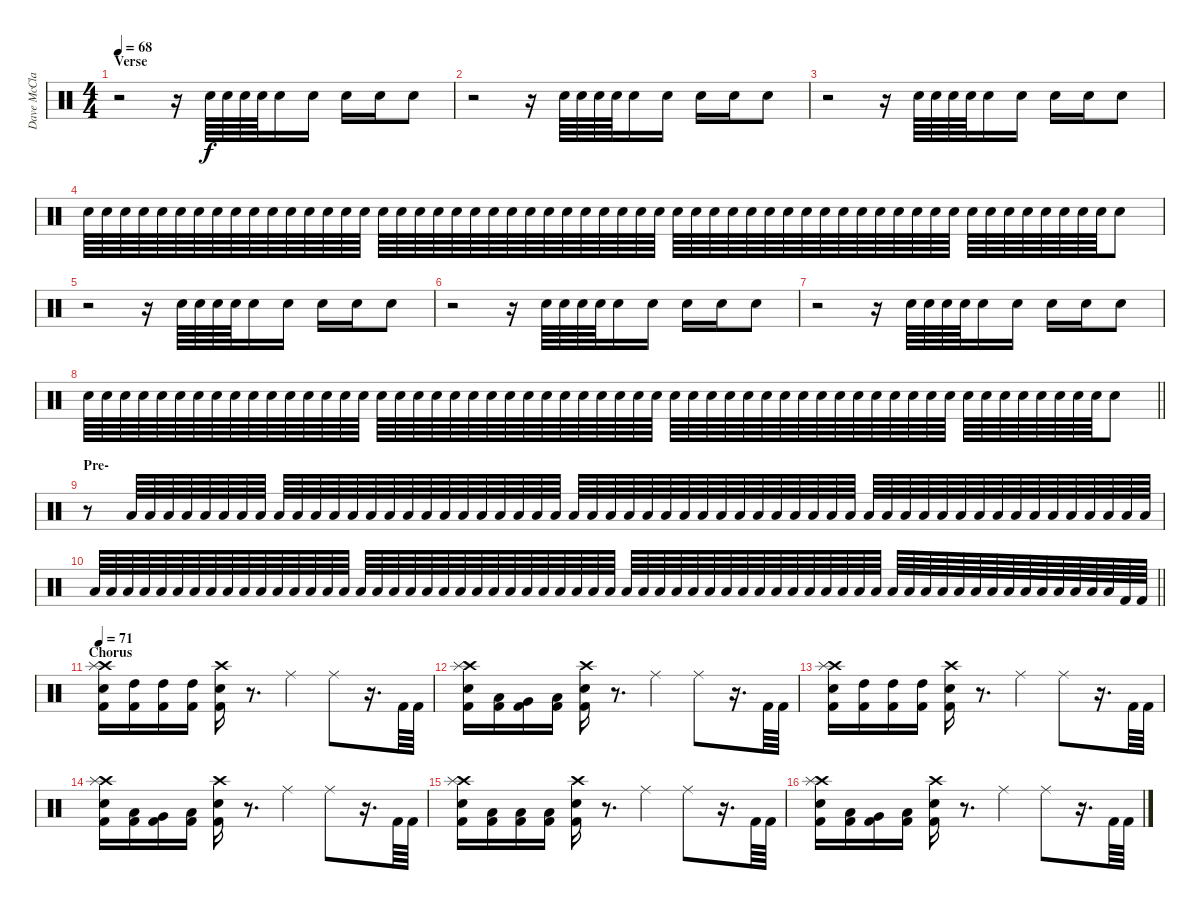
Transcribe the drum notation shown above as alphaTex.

\track ("Dave McClain - Drums" "Dave McCla") {instrument percussion}
\staff {score}
\articulation defaults
\ts (4 4)
\section ("" "Verse")
\tempo 68
\clef neutral
\ks c
r.2{dy f} r.16 "Electric Snare (hit)".64 "Electric Snare (hit)".64 "Electric Snare (hit)".64 "Electric Snare (hit)".64 "Electric Snare (hit)".16 "Electric Snare (hit)".16 "Electric Snare (hit)".16 "Electric Snare (hit)".16 "Electric Snare (hit)".8 |
r.2 r.16 "Electric Snare (hit)".64 "Electric Snare (hit)".64 "Electric Snare (hit)".64 "Electric Snare (hit)".64 "Electric Snare (hit)".16 "Electric Snare (hit)".16 "Electric Snare (hit)".16 "Electric Snare (hit)".16 "Electric Snare (hit)".8 |
r.2 r.16 "Electric Snare (hit)".64 "Electric Snare (hit)".64 "Electric Snare (hit)".64 "Electric Snare (hit)".64 "Electric Snare (hit)".16 "Electric Snare (hit)".16 "Electric Snare (hit)".16 "Electric Snare (hit)".16 "Electric Snare (hit)".8 |
"Electric Snare (hit)".64 "Electric Snare (hit)".64 "Electric Snare (hit)".64 "Electric Snare (hit)".64 "Electric Snare (hit)".64 "Electric Snare (hit)".64 "Electric Snare (hit)".64 "Electric Snare (hit)".64 "Electric Snare (hit)".64 "Electric Snare (hit)".64 "Electric Snare (hit)".64 "Electric Snare (hit)".64 "Electric Snare (hit)".64 "Electric Snare (hit)".64 "Electric Snare (hit)".64 "Electric Snare (hit)".64 "Electric Snare (hit)".64 "Electric Snare (hit)".64 "Electric Snare (hit)".64 "Electric Snare (hit)".64 "Electric Snare (hit)".64 "Electric Snare (hit)".64 "Electric Snare (hit)".64 "Electric Snare (hit)".64 "Electric Snare (hit)".64 "Electric Snare (hit)".64 "Electric Snare (hit)".64 "Electric Snare (hit)".64 "Electric Snare (hit)".64 "Electric Snare (hit)".64 "Electric Snare (hit)".64 "Electric Snare (hit)".64 "Electric Snare (hit)".64 "Electric Snare (hit)".64 "Electric Snare (hit)".64 "Electric Snare (hit)".64 "Electric Snare (hit)".64 "Electric Snare (hit)".64 "Electric Snare (hit)".64 "Electric Snare (hit)".64 "Electric Snare (hit)".64 "Electric Snare (hit)".64 "Electric Snare (hit)".64 "Electric Snare (hit)".64 "Electric Snare (hit)".64 "Electric Snare (hit)".64 "Electric Snare (hit)".64 "Electric Snare (hit)".64 "Electric Snare (hit)".64 "Electric Snare (hit)".64 "Electric Snare (hit)".64 "Electric Snare (hit)".64 "Electric Snare (hit)".64 "Electric Snare (hit)".64 "Electric Snare (hit)".64 "Electric Snare (hit)".64 "Electric Snare (hit)".8 |
r.2 r.16 "Electric Snare (hit)".64 "Electric Snare (hit)".64 "Electric Snare (hit)".64 "Electric Snare (hit)".64 "Electric Snare (hit)".16 "Electric Snare (hit)".16 "Electric Snare (hit)".16 "Electric Snare (hit)".16 "Electric Snare (hit)".8 |
r.2 r.16 "Electric Snare (hit)".64 "Electric Snare (hit)".64 "Electric Snare (hit)".64 "Electric Snare (hit)".64 "Electric Snare (hit)".16 "Electric Snare (hit)".16 "Electric Snare (hit)".16 "Electric Snare (hit)".16 "Electric Snare (hit)".8 |
r.2 r.16 "Electric Snare (hit)".64 "Electric Snare (hit)".64 "Electric Snare (hit)".64 "Electric Snare (hit)".64 "Electric Snare (hit)".16 "Electric Snare (hit)".16 "Electric Snare (hit)".16 "Electric Snare (hit)".16 "Electric Snare (hit)".8 |
\barLineRight lightlight "Electric Snare (hit)".64 "Electric Snare (hit)".64 "Electric Snare (hit)".64 "Electric Snare (hit)".64 "Electric Snare (hit)".64 "Electric Snare (hit)".64 "Electric Snare (hit)".64 "Electric Snare (hit)".64 "Electric Snare (hit)".64 "Electric Snare (hit)".64 "Electric Snare (hit)".64 "Electric Snare (hit)".64 "Electric Snare (hit)".64 "Electric Snare (hit)".64 "Electric Snare (hit)".64 "Electric Snare (hit)".64 "Electric Snare (hit)".64 "Electric Snare (hit)".64 "Electric Snare (hit)".64 "Electric Snare (hit)".64 "Electric Snare (hit)".64 "Electric Snare (hit)".64 "Electric Snare (hit)".64 "Electric Snare (hit)".64 "Electric Snare (hit)".64 "Electric Snare (hit)".64 "Electric Snare (hit)".64 "Electric Snare (hit)".64 "Electric Snare (hit)".64 "Electric Snare (hit)".64 "Electric Snare (hit)".64 "Electric Snare (hit)".64 "Electric Snare (hit)".64 "Electric Snare (hit)".64 "Electric Snare (hit)".64 "Electric Snare (hit)".64 "Electric Snare (hit)".64 "Electric Snare (hit)".64 "Electric Snare (hit)".64 "Electric Snare (hit)".64 "Electric Snare (hit)".64 "Electric Snare (hit)".64 "Electric Snare (hit)".64 "Electric Snare (hit)".64 "Electric Snare (hit)".64 "Electric Snare (hit)".64 "Electric Snare (hit)".64 "Electric Snare (hit)".64 "Electric Snare (hit)".64 "Electric Snare (hit)".64 "Electric Snare (hit)".64 "Electric Snare (hit)".64 "Electric Snare (hit)".64 "Electric Snare (hit)".64 "Electric Snare (hit)".64 "Electric Snare (hit)".64 "Electric Snare (hit)".8
|
\section ("" "Pre-")
r.8{volume 0} "Low Floor Tom (hit)".64{volume 16} "Low Floor Tom (hit)".64 "Low Floor Tom (hit)".64 "Low Floor Tom (hit)".64 "Low Floor Tom (hit)".64 "Low Floor Tom (hit)".64 "Low Floor Tom (hit)".64 "Low Floor Tom (hit)".64 "Low Floor Tom (hit)".64 "Low Floor Tom (hit)".64 "Low Floor Tom (hit)".64 "Low Floor Tom (hit)".64 "Low Floor Tom (hit)".64 "Low Floor Tom (hit)".64 "Low Floor Tom (hit)".64 "Low Floor Tom (hit)".64 "Low Floor Tom (hit)".64 "Low Floor Tom (hit)".64 "Low Floor Tom (hit)".64 "Low Floor Tom (hit)".64 "Low Floor Tom (hit)".64 "Low Floor Tom (hit)".64 "Low Floor Tom (hit)".64 "Low Floor Tom (hit)".64 "Low Floor Tom (hit)".64 "Low Floor Tom (hit)".64 "Low Floor Tom (hit)".64 "Low Floor Tom (hit)".64 "Low Floor Tom (hit)".64 "Low Floor Tom (hit)".64 "Low Floor Tom (hit)".64 "Low Floor Tom (hit)".64 "Low Floor Tom (hit)".64 "Low Floor Tom (hit)".64 "Low Floor Tom (hit)".64 "Low Floor Tom (hit)".64 "Low Floor Tom (hit)".64 "Low Floor Tom (hit)".64 "Low Floor Tom (hit)".64 "Low Floor Tom (hit)".64 "Low Floor Tom (hit)".64 "Low Floor Tom (hit)".64 "Low Floor Tom (hit)".64 "Low Floor Tom (hit)".64 "Low Floor Tom (hit)".64 "Low Floor Tom (hit)".64 "Low Floor Tom (hit)".64 "Low Floor Tom (hit)".64 "Low Floor Tom (hit)".64 "Low Floor Tom (hit)".64 "Low Floor Tom (hit)".64 "Low Floor Tom (hit)".64 "Low Floor Tom (hit)".64 "Low Floor Tom (hit)".64 "Low Floor Tom (hit)".64 "Low Floor Tom (hit)".64 |
\barLineRight lightlight "Low Floor Tom (hit)".64 "Low Floor Tom (hit)".64 "Low Floor Tom (hit)".64 "Low Floor Tom (hit)".64 "Low Floor Tom (hit)".64 "Low Floor Tom (hit)".64 "Low Floor Tom (hit)".64 "Low Floor Tom (hit)".64 "Low Floor Tom (hit)".64 "Low Floor Tom (hit)".64 "Low Floor Tom (hit)".64 "Low Floor Tom (hit)".64 "Low Floor Tom (hit)".64 "Low Floor Tom (hit)".64 "Low Floor Tom (hit)".64 "Low Floor Tom (hit)".64 "Low Floor Tom (hit)".64 "Low Floor Tom (hit)".64 "Low Floor Tom (hit)".64 "Low Floor Tom (hit)".64 "Low Floor Tom (hit)".64 "Low Floor Tom (hit)".64 "Low Floor Tom (hit)".64 "Low Floor Tom (hit)".64 "Low Floor Tom (hit)".64 "Low Floor Tom (hit)".64 "Low Floor Tom (hit)".64 "Low Floor Tom (hit)".64 "Low Floor Tom (hit)".64 "Low Floor Tom (hit)".64 "Low Floor Tom (hit)".64 "Low Floor Tom (hit)".64 "Low Floor Tom (hit)".64 "Low Floor Tom (hit)".64 "Low Floor Tom (hit)".64 "Low Floor Tom (hit)".64 "Low Floor Tom (hit)".64 "Low Floor Tom (hit)".64 "Low Floor Tom (hit)".64 "Low Floor Tom (hit)".64 "Low Floor Tom (hit)".64 "Low Floor Tom (hit)".64 "Low Floor Tom (hit)".64 "Low Floor Tom (hit)".64 "Low Floor Tom (hit)".64 "Low Floor Tom (hit)".64 "Low Floor Tom (hit)".64 "Low Floor Tom (hit)".64 "Low Floor Tom (hit)".64 "Low Floor Tom (hit)".64 "Low Floor Tom (hit)".64 "Low Floor Tom (hit)".64 "Low Floor Tom (hit)".64 "Low Floor Tom (hit)".64 "Low Floor Tom (hit)".64 "Low Floor Tom (hit)".64 "Low Floor Tom (hit)".64 "Low Floor Tom (hit)".64 "Low Floor Tom (hit)".64 "Low Floor Tom (hit)".64 "Low Floor Tom (hit)".64 "Low Floor Tom (hit)".64 "Kick (hit) 2".64 "Kick (hit) 2".64
|
\section ("" "Chorus")
\tempo 71
("Crash high (hit)" "Splash (hit)" "Electric Snare (hit)" "Kick (hit) 2").16 ("High Tom (hit)" "Kick (hit) 2").16 ("High Tom (hit)" "Kick (hit) 2").16 ("High Tom (hit)" "Kick (hit) 2").16 ("Crash high (hit)" "Electric Snare (hit)" "Kick (hit) 2").16 r.8{d} "Ride (middle)".4 "Ride (middle)".8 r.16{d} "Kick (hit) 2".64 "Kick (hit) 2".64 |
("Crash high (hit)" "Splash (hit)" "Electric Snare (hit)" "Kick (hit) 2").16 ("Low Tom (hit)" "Kick (hit) 2").16 ("Very Low Tom (hit)" "Kick (hit) 2").16 ("Low Floor Tom (hit)" "Kick (hit) 2").16 ("Crash high (hit)" "Electric Snare (hit)" "Kick (hit) 2").16 r.8{d} "Ride (middle)".4 "Ride (middle)".8 r.16{d} "Kick (hit) 2".64 "Kick (hit) 2".64 |
("Crash high (hit)" "Splash (hit)" "Electric Snare (hit)" "Kick (hit) 2").16 ("High Tom (hit)" "Kick (hit) 2").16 ("High Tom (hit)" "Kick (hit) 2").16 ("High Tom (hit)" "Kick (hit) 2").16 ("Crash high (hit)" "Electric Snare (hit)" "Kick (hit) 2").16 r.8{d} "Ride (middle)".4 "Ride (middle)".8 r.16{d} "Kick (hit) 2".64 "Kick (hit) 2".64 |
("Crash high (hit)" "Splash (hit)" "Electric Snare (hit)" "Kick (hit) 2").16 ("Low Tom (hit)" "Kick (hit) 2").16 ("Very Low Tom (hit)" "Kick (hit) 2").16 ("Low Floor Tom (hit)" "Kick (hit) 2").16 ("Crash high (hit)" "Electric Snare (hit)" "Kick (hit) 2").16 r.8{d} "Ride (middle)".4 "Ride (middle)".8 r.16{d} "Kick (hit) 2".64 "Kick (hit) 2".64 |
("Crash high (hit)" "Splash (hit)" "Electric Snare (hit)" "Kick (hit) 2").16 ("Low Tom (hit)" "Kick (hit) 2").16 ("Low Tom (hit)" "Kick (hit) 2").16 ("Low Tom (hit)" "Kick (hit) 2").16 ("Crash high (hit)" "Electric Snare (hit)" "Kick (hit) 2").16 r.8{d} "Ride (middle)".4 "Ride (middle)".8 r.16{d} "Kick (hit) 2".64 "Kick (hit) 2".64 |
("Crash high (hit)" "Splash (hit)" "Electric Snare (hit)" "Kick (hit) 2").16 ("Low Tom (hit)" "Kick (hit) 2").16 ("Very Low Tom (hit)" "Kick (hit) 2").16 ("Low Floor Tom (hit)" "Kick (hit) 2").16 ("Crash high (hit)" "Electric Snare (hit)" "Kick (hit) 2").16 r.8{d} "Ride (middle)".4 "Ride (middle)".8 r.16{d} "Kick (hit) 2".64 "Kick (hit) 2".64
